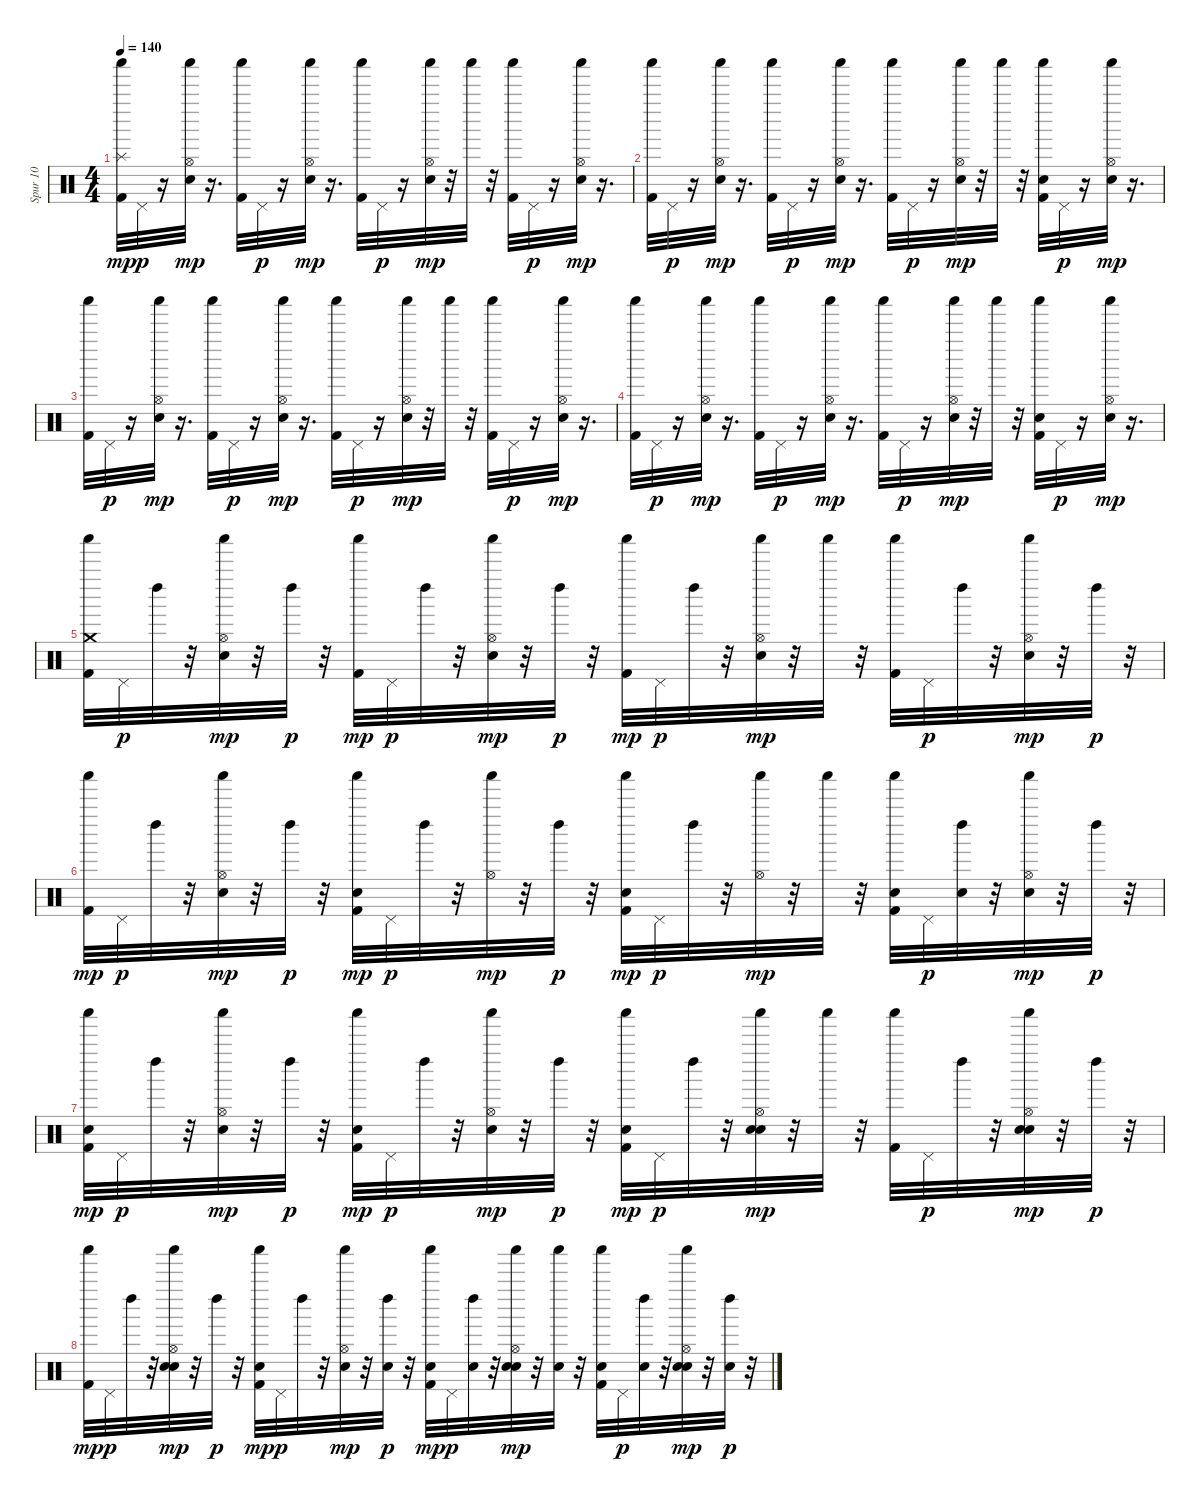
\track ("Spur 10" "Spur 10") {instrument percussion}
\staff {score}
\articulation defaults
\ts (4 4)
\tempo 140
\clef neutral
\ks c
("Kick (hit) 2" "Splash (hit)" "Shaker (hit)").32{dy mp} "Pedal Hi-Hat (hit)".32{dy p} r.16 ("Hand Clap (hit)" "Hi-Hat (open)" "Shaker (hit)").32{dy mp} r.16{d} ("Kick (hit) 2" "Shaker (hit)").32 "Pedal Hi-Hat (hit)".32{dy p} r.16 ("Hand Clap (hit)" "Hi-Hat (open)" "Shaker (hit)").32{dy mp} r.16{d} ("Kick (hit) 2" "Shaker (hit)").32 "Pedal Hi-Hat (hit)".32{dy p} r.16 ("Hand Clap (hit)" "Hi-Hat (open)" "Shaker (hit)").32{dy mp} r.32 "Shaker (hit)".32 r.32 ("Kick (hit) 2" "Shaker (hit)").32 "Pedal Hi-Hat (hit)".32{dy p} r.16 ("Hand Clap (hit)" "Hi-Hat (open)" "Shaker (hit)").32{dy mp} r.16{d} |
("Kick (hit) 2" "Shaker (hit)").32 "Pedal Hi-Hat (hit)".32{dy p} r.16 ("Hand Clap (hit)" "Hi-Hat (open)" "Shaker (hit)").32{dy mp} r.16{d} ("Kick (hit) 2" "Shaker (hit)").32 "Pedal Hi-Hat (hit)".32{dy p} r.16 ("Hand Clap (hit)" "Hi-Hat (open)" "Shaker (hit)").32{dy mp} r.16{d} ("Kick (hit) 2" "Shaker (hit)").32 "Pedal Hi-Hat (hit)".32{dy p} r.16 ("Hand Clap (hit)" "Hi-Hat (open)" "Shaker (hit)").32{dy mp} r.32 "Shaker (hit)".32 r.32 ("Kick (hit) 2" "Hand Clap (hit)" "Shaker (hit)").32 "Pedal Hi-Hat (hit)".32{dy p} r.16 ("Hand Clap (hit)" "Hi-Hat (open)" "Shaker (hit)").32{dy mp} r.16{d} |
("Kick (hit) 2" "Shaker (hit)").32 "Pedal Hi-Hat (hit)".32{dy p} r.16 ("Hand Clap (hit)" "Hi-Hat (open)" "Shaker (hit)").32{dy mp} r.16{d} ("Kick (hit) 2" "Shaker (hit)").32 "Pedal Hi-Hat (hit)".32{dy p} r.16 ("Hand Clap (hit)" "Hi-Hat (open)" "Shaker (hit)").32{dy mp} r.16{d} ("Kick (hit) 2" "Shaker (hit)").32 "Pedal Hi-Hat (hit)".32{dy p} r.16 ("Hand Clap (hit)" "Hi-Hat (open)" "Shaker (hit)").32{dy mp} r.32 "Shaker (hit)".32 r.32 ("Kick (hit) 2" "Shaker (hit)").32 "Pedal Hi-Hat (hit)".32{dy p} r.16 ("Hand Clap (hit)" "Hi-Hat (open)" "Shaker (hit)").32{dy mp} r.16{d} |
("Kick (hit) 2" "Shaker (hit)").32 "Pedal Hi-Hat (hit)".32{dy p} r.16 ("Hand Clap (hit)" "Hi-Hat (open)" "Shaker (hit)").32{dy mp} r.16{d} ("Kick (hit) 2" "Shaker (hit)").32 "Pedal Hi-Hat (hit)".32{dy p} r.16 ("Hand Clap (hit)" "Hi-Hat (open)" "Shaker (hit)").32{dy mp} r.16{d} ("Kick (hit) 2" "Shaker (hit)").32 "Pedal Hi-Hat (hit)".32{dy p} r.16 ("Hand Clap (hit)" "Hi-Hat (open)" "Shaker (hit)").32{dy mp} r.32 "Shaker (hit)".32 r.32 ("Kick (hit) 2" "Hand Clap (hit)" "Shaker (hit)").32 "Pedal Hi-Hat (hit)".32{dy p} r.16 ("Hand Clap (hit)" "Hi-Hat (open)" "Shaker (hit)").32{dy mp} r.16{d} |
("Kick (hit) 2" "Shaker (hit)" "Crash medium (hit)").32 "Pedal Hi-Hat (hit)".32{dy p} "Left Maraca (hit)".32 r.32 ("Hand Clap (hit)" "Hi-Hat (open)" "Shaker (hit)").32{dy mp} r.32 "Left Maraca (hit)".32{dy p} r.32 ("Kick (hit) 2" "Shaker (hit)").32{dy mp} "Pedal Hi-Hat (hit)".32{dy p} "Left Maraca (hit)".32 r.32 ("Hand Clap (hit)" "Hi-Hat (open)" "Shaker (hit)").32{dy mp} r.32 "Left Maraca (hit)".32{dy p} r.32 ("Kick (hit) 2" "Shaker (hit)").32{dy mp} "Pedal Hi-Hat (hit)".32{dy p} "Left Maraca (hit)".32 r.32 ("Hand Clap (hit)" "Hi-Hat (open)" "Shaker (hit)").32{dy mp} r.32 "Shaker (hit)".32 r.32 ("Kick (hit) 2" "Shaker (hit)").32 "Pedal Hi-Hat (hit)".32{dy p} "Left Maraca (hit)".32 r.32 ("Hand Clap (hit)" "Hi-Hat (open)" "Shaker (hit)").32{dy mp} r.32 "Left Maraca (hit)".32{dy p} r.32 |
("Kick (hit) 2" "Shaker (hit)").32{dy mp} "Pedal Hi-Hat (hit)".32{dy p} "Left Maraca (hit)".32 r.32 ("Hand Clap (hit)" "Hi-Hat (open)" "Shaker (hit)").32{dy mp} r.32 "Left Maraca (hit)".32{dy p} r.32 ("Kick (hit) 2" "Hand Clap (hit)" "Shaker (hit)").32{dy mp} "Pedal Hi-Hat (hit)".32{dy p} "Left Maraca (hit)".32 r.32 ("Hi-Hat (open)" "Shaker (hit)").32{dy mp} r.32 "Left Maraca (hit)".32{dy p} r.32 ("Kick (hit) 2" "Hand Clap (hit)" "Shaker (hit)").32{dy mp} "Pedal Hi-Hat (hit)".32{dy p} "Left Maraca (hit)".32 r.32 ("Hi-Hat (open)" "Shaker (hit)").32{dy mp} r.32 "Shaker (hit)".32 r.32 ("Kick (hit) 2" "Hand Clap (hit)" "Shaker (hit)").32 "Pedal Hi-Hat (hit)".32{dy p} ("Hand Clap (hit)" "Left Maraca (hit)").32 r.32 ("Hand Clap (hit)" "Hi-Hat (open)" "Shaker (hit)").32{dy mp} r.32 "Left Maraca (hit)".32{dy p} r.32 |
("Kick (hit) 2" "Electric Snare (hit)" "Shaker (hit)").32{dy mp} "Pedal Hi-Hat (hit)".32{dy p} "Left Maraca (hit)".32 r.32 ("Hand Clap (hit)" "Hi-Hat (open)" "Shaker (hit)").32{dy mp} r.32 "Left Maraca (hit)".32{dy p} r.32 ("Kick (hit) 2" "Electric Snare (hit)" "Shaker (hit)").32{dy mp} "Pedal Hi-Hat (hit)".32{dy p} "Left Maraca (hit)".32 r.32 ("Hand Clap (hit)" "Hi-Hat (open)" "Shaker (hit)").32{dy mp} r.32 "Left Maraca (hit)".32{dy p} r.32 ("Kick (hit) 2" "Electric Snare (hit)" "Shaker (hit)").32{dy mp} "Pedal Hi-Hat (hit)".32{dy p} "Left Maraca (hit)".32 r.32 ("Hand Clap (hit)" "Electric Snare (hit)" "Hi-Hat (open)" "Shaker (hit)").32{dy mp} r.32 "Shaker (hit)".32 r.32 ("Kick (hit) 2" "Shaker (hit)").32 "Pedal Hi-Hat (hit)".32{dy p} "Left Maraca (hit)".32 r.32 ("Hand Clap (hit)" "Electric Snare (hit)" "Hi-Hat (open)" "Shaker (hit)").32{dy mp} r.32 "Left Maraca (hit)".32{dy p} r.32 |
("Kick (hit) 2" "Shaker (hit)").32{dy mp} "Pedal Hi-Hat (hit)".32{dy p} "Left Maraca (hit)".32 r.32 ("Hand Clap (hit)" "Electric Snare (hit)" "Hi-Hat (open)" "Shaker (hit)").32{dy mp} r.32 "Left Maraca (hit)".32{dy p} r.32 ("Kick (hit) 2" "Hand Clap (hit)" "Shaker (hit)").32{dy mp} "Pedal Hi-Hat (hit)".32{dy p} "Left Maraca (hit)".32 r.32 ("Electric Snare (hit)" "Hi-Hat (open)" "Shaker (hit)").32{dy mp} r.32 ("Hand Clap (hit)" "Left Maraca (hit)").32{dy p} r.32 ("Kick (hit) 2" "Hand Clap (hit)" "Shaker (hit)").32{dy mp} "Pedal Hi-Hat (hit)".32{dy p} ("Hand Clap (hit)" "Left Maraca (hit)").32 r.32 ("Hand Clap (hit)" "Electric Snare (hit)" "Hi-Hat (open)" "Shaker (hit)").32{dy mp} r.32 ("Hand Clap (hit)" "Shaker (hit)").32 r.32 ("Kick (hit) 2" "Hand Clap (hit)" "Shaker (hit)").32 "Pedal Hi-Hat (hit)".32{dy p} ("Hand Clap (hit)" "Left Maraca (hit)").32 r.32 ("Hand Clap (hit)" "Electric Snare (hit)" "Hi-Hat (open)" "Shaker (hit)").32{dy mp} r.32 ("Hand Clap (hit)" "Left Maraca (hit)").32{dy p} r.32
